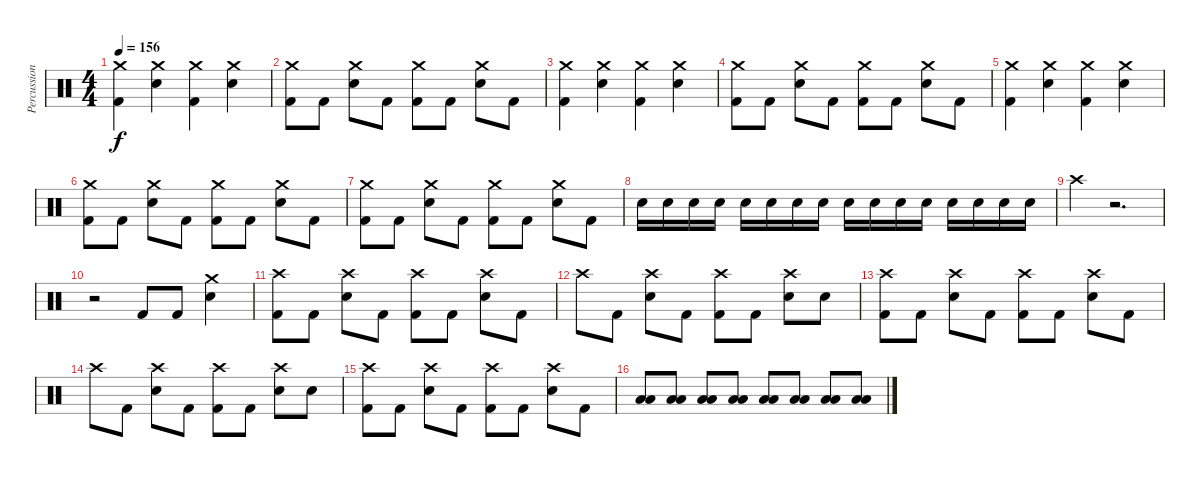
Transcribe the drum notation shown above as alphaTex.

\track ("Percussion" "Percussion") {instrument percussion}
\staff {score}
\articulation defaults
\ts (4 4)
\tempo 156
\clef neutral
\ks c
("Crash medium (hit)" "Kick (hit) 2").4{dy f} ("Crash medium (hit)" "Electric Snare (hit)").4 ("Crash medium (hit)" "Kick (hit) 2").4 ("Crash medium (hit)" "Electric Snare (hit)").4 |
("Crash medium (hit)" "Kick (hit) 2").8 "Kick (hit) 2".8 ("Crash medium (hit)" "Electric Snare (hit)").8 "Kick (hit) 2".8 ("Crash medium (hit)" "Kick (hit) 2").8 "Kick (hit) 2".8 ("Crash medium (hit)" "Electric Snare (hit)").8 "Kick (hit) 2".8 |
("Crash medium (hit)" "Kick (hit) 2").4 ("Crash medium (hit)" "Electric Snare (hit)").4 ("Crash medium (hit)" "Kick (hit) 2").4 ("Crash medium (hit)" "Electric Snare (hit)").4 |
("Crash medium (hit)" "Kick (hit) 2").8 "Kick (hit) 2".8 ("Crash medium (hit)" "Electric Snare (hit)").8 "Kick (hit) 2".8 ("Crash medium (hit)" "Kick (hit) 2").8 "Kick (hit) 2".8 ("Crash medium (hit)" "Electric Snare (hit)").8 "Kick (hit) 2".8 |
("Crash medium (hit)" "Kick (hit) 2").4 ("Crash medium (hit)" "Electric Snare (hit)").4 ("Crash medium (hit)" "Kick (hit) 2").4 ("Crash medium (hit)" "Electric Snare (hit)").4 |
("Crash medium (hit)" "Kick (hit) 2").8 "Kick (hit) 2".8 ("Crash medium (hit)" "Electric Snare (hit)").8 "Kick (hit) 2".8 ("Crash medium (hit)" "Kick (hit) 2").8 "Kick (hit) 2".8 ("Crash medium (hit)" "Electric Snare (hit)").8 "Kick (hit) 2".8 |
("Crash medium (hit)" "Kick (hit) 2").8 "Kick (hit) 2".8 ("Crash medium (hit)" "Electric Snare (hit)").8 "Kick (hit) 2".8 ("Crash medium (hit)" "Kick (hit) 2").8 "Kick (hit) 2".8 ("Crash medium (hit)" "Electric Snare (hit)").8 "Kick (hit) 2".8 |
"Electric Snare (hit)".16 "Electric Snare (hit)".16 "Electric Snare (hit)".16 "Electric Snare (hit)".16 "Electric Snare (hit)".16 "Electric Snare (hit)".16 "Electric Snare (hit)".16 "Electric Snare (hit)".16 "Electric Snare (hit)".16 "Electric Snare (hit)".16 "Electric Snare (hit)".16 "Electric Snare (hit)".16 "Electric Snare (hit)".16 "Electric Snare (hit)".16 "Electric Snare (hit)".16 "Electric Snare (hit)".16 |
"Crash high (hit)".4 r.2{d} |
r.2 "Kick (hit) 2".8 "Kick (hit) 2".8 ("Crash medium (hit)" "Electric Snare (hit)").4 |
("Crash high (hit)" "Kick (hit) 2").8 "Kick (hit) 2".8 ("Crash high (hit)" "Electric Snare (hit)").8 "Kick (hit) 2".8 ("Crash high (hit)" "Kick (hit) 2").8 "Kick (hit) 2".8 ("Crash high (hit)" "Electric Snare (hit)").8 "Kick (hit) 2".8 |
"Crash high (hit)".8 "Kick (hit) 2".8 ("Crash high (hit)" "Electric Snare (hit)").8 "Kick (hit) 2".8 ("Crash high (hit)" "Kick (hit) 2").8 "Kick (hit) 2".8 ("Crash high (hit)" "Electric Snare (hit)").8 "Electric Snare (hit)".8 |
("Crash high (hit)" "Kick (hit) 2").8 "Kick (hit) 2".8 ("Crash high (hit)" "Electric Snare (hit)").8 "Kick (hit) 2".8 ("Crash high (hit)" "Kick (hit) 2").8 "Kick (hit) 2".8 ("Crash high (hit)" "Electric Snare (hit)").8 "Kick (hit) 2".8 |
"Crash high (hit)".8 "Kick (hit) 2".8 ("Crash high (hit)" "Electric Snare (hit)").8 "Kick (hit) 2".8 ("Crash high (hit)" "Kick (hit) 2").8 "Kick (hit) 2".8 ("Crash high (hit)" "Electric Snare (hit)").8 "Electric Snare (hit)".8 |
("Crash high (hit)" "Kick (hit) 2").8 "Kick (hit) 2".8 ("Crash high (hit)" "Electric Snare (hit)").8 "Kick (hit) 2".8 ("Crash high (hit)" "Kick (hit) 2").8 "Kick (hit) 2".8 ("Crash high (hit)" "Electric Snare (hit)").8 "Kick (hit) 2".8 |
("Low Tom (hit)" "Low Tom (hit)").8{volume 7} ("Low Tom (hit)" "Low Tom (hit)").8{volume 13} ("Low Tom (hit)" "Low Tom (hit)").8 ("Low Tom (hit)" "Low Tom (hit)").8 ("Low Tom (hit)" "Low Tom (hit)").8 ("Low Tom (hit)" "Low Tom (hit)").8 ("Low Tom (hit)" "Low Tom (hit)").8 ("Low Tom (hit)" "Low Tom (hit)").8
